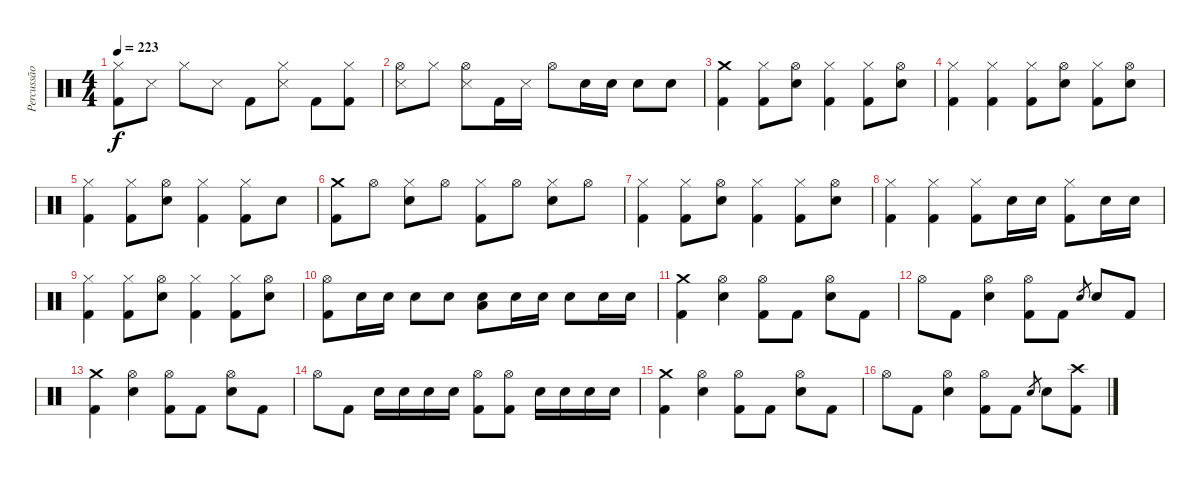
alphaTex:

\track ("Percussão" "Percussão") {instrument percussion}
\staff {score}
\articulation defaults
\ts (4 4)
\tempo 223
\clef neutral
\ks c
("Hi-Hat (closed)" "Kick (hit) 2").8{dy f} "Snare (side stick) 3".8 "Hi-Hat (closed)".8 "Snare (side stick) 3".8 "Kick (hit) 2".8 ("Hi-Hat (closed)" "Snare (side stick) 3").8 "Kick (hit) 2".8 ("Hi-Hat (closed)" "Kick (hit) 2").8 |
("Hi-Hat (open)" "Snare (side stick) 3").8 "Hi-Hat (closed)".8 ("Hi-Hat (open)" "Snare (side stick) 3").8 "Kick (hit) 2".16 "Snare (side stick) 3".16 "Hi-Hat (open)".8 "Snare (hit) 2".16 "Snare (hit) 2".16 "Snare (hit) 2".8 "Snare (hit) 2".8 |
("Crash medium (hit)" "Kick (hit) 2").4 ("Hi-Hat (closed)" "Kick (hit) 2").8 ("Hi-Hat (open)" "Snare (hit) 2").8 ("Hi-Hat (closed)" "Kick (hit) 2").4 ("Hi-Hat (closed)" "Kick (hit) 2").8 ("Hi-Hat (open)" "Snare (hit) 2").8 |
("Hi-Hat (closed)" "Kick (hit) 2").4 ("Hi-Hat (closed)" "Kick (hit) 2").4 ("Hi-Hat (closed)" "Kick (hit) 2").8 ("Hi-Hat (open)" "Snare (hit) 2").8 ("Hi-Hat (closed)" "Kick (hit) 2").8 ("Hi-Hat (open)" "Snare (hit) 2").8 |
("Hi-Hat (closed)" "Kick (hit) 2").4 ("Hi-Hat (closed)" "Kick (hit) 2").8 ("Hi-Hat (open)" "Snare (hit) 2").8 ("Hi-Hat (closed)" "Kick (hit) 2").4 ("Hi-Hat (closed)" "Kick (hit) 2").8 "Snare (hit) 2".8 |
("Crash medium (hit)" "Kick (hit) 2").8 "Hi-Hat (open)".8 ("Hi-Hat (closed)" "Snare (hit) 2").8 "Hi-Hat (open)".8 ("Hi-Hat (closed)" "Kick (hit) 2").8 "Hi-Hat (open)".8 ("Hi-Hat (closed)" "Snare (hit) 2").8 "Hi-Hat (open)".8 |
("Hi-Hat (closed)" "Kick (hit) 2").4 ("Hi-Hat (closed)" "Kick (hit) 2").8 ("Hi-Hat (open)" "Snare (hit) 2").8 ("Hi-Hat (closed)" "Kick (hit) 2").4 ("Hi-Hat (closed)" "Kick (hit) 2").8 ("Hi-Hat (open)" "Snare (hit) 2").8 |
("Hi-Hat (closed)" "Kick (hit) 2").4 ("Hi-Hat (closed)" "Kick (hit) 2").4 ("Hi-Hat (closed)" "Kick (hit) 2").8 "Snare (hit) 2".16 "Snare (hit) 2".16 ("Hi-Hat (closed)" "Kick (hit) 2").8 "Snare (hit) 2".16 "Snare (hit) 2".16 |
("Hi-Hat (closed)" "Kick (hit) 2").4 ("Hi-Hat (closed)" "Kick (hit) 2").8 ("Hi-Hat (open)" "Snare (hit) 2").8 ("Hi-Hat (closed)" "Kick (hit) 2").4 ("Hi-Hat (closed)" "Kick (hit) 2").8 ("Hi-Hat (open)" "Snare (hit) 2").8 |
("Hi-Hat (open)" "Kick (hit) 2").8 "Snare (hit) 2".16 "Snare (hit) 2".16 "Snare (hit) 2".8 "Snare (hit) 2".8 ("Low Tom (hit)" "Snare (hit) 2").8 "Snare (hit) 2".16 "Snare (hit) 2".16 "Snare (hit) 2".8 "Snare (hit) 2".16 "Snare (hit) 2".16 |
("Crash medium (hit)" "Kick (hit) 2").4 ("Hi-Hat (open)" "Snare (hit) 2").4 ("Hi-Hat (open)" "Kick (hit) 2").8 "Kick (hit) 2".8 ("Hi-Hat (open)" "Snare (hit) 2").8 "Kick (hit) 2".8 |
"Hi-Hat (open)".8 "Kick (hit) 2".8 ("Hi-Hat (open)" "Snare (hit) 2").4 ("Hi-Hat (open)" "Kick (hit) 2").8 "Kick (hit) 2".8 "Snare (hit) 2".8{gr} "Snare (hit) 2".8 "Kick (hit) 2".8 |
("Crash medium (hit)" "Kick (hit) 2").4 ("Hi-Hat (open)" "Snare (hit) 2").4 ("Hi-Hat (open)" "Kick (hit) 2").8 "Kick (hit) 2".8 ("Hi-Hat (open)" "Snare (hit) 2").8 "Kick (hit) 2".8 |
"Hi-Hat (open)".8 "Kick (hit) 2".8 "Snare (hit) 2".16 "Snare (hit) 2".16 "Snare (hit) 2".16 "Snare (hit) 2".16 ("Hi-Hat (open)" "Kick (hit) 2").8 ("Hi-Hat (open)" "Kick (hit) 2").8 "Snare (hit) 2".16 "Snare (hit) 2".16 "Snare (hit) 2".16 "Snare (hit) 2".16 |
("Crash medium (hit)" "Kick (hit) 2").4 ("Hi-Hat (open)" "Snare (hit) 2").4 ("Hi-Hat (open)" "Kick (hit) 2").8 "Kick (hit) 2".8 ("Hi-Hat (open)" "Snare (hit) 2").8 "Kick (hit) 2".8 |
"Hi-Hat (open)".8 "Kick (hit) 2".8 ("Hi-Hat (open)" "Snare (hit) 2").4 ("Hi-Hat (open)" "Kick (hit) 2").8 "Kick (hit) 2".8 "Snare (hit) 2".8{gr} "Snare (hit) 2".8 ("Crash high (hit)" "Kick (hit) 2").8
